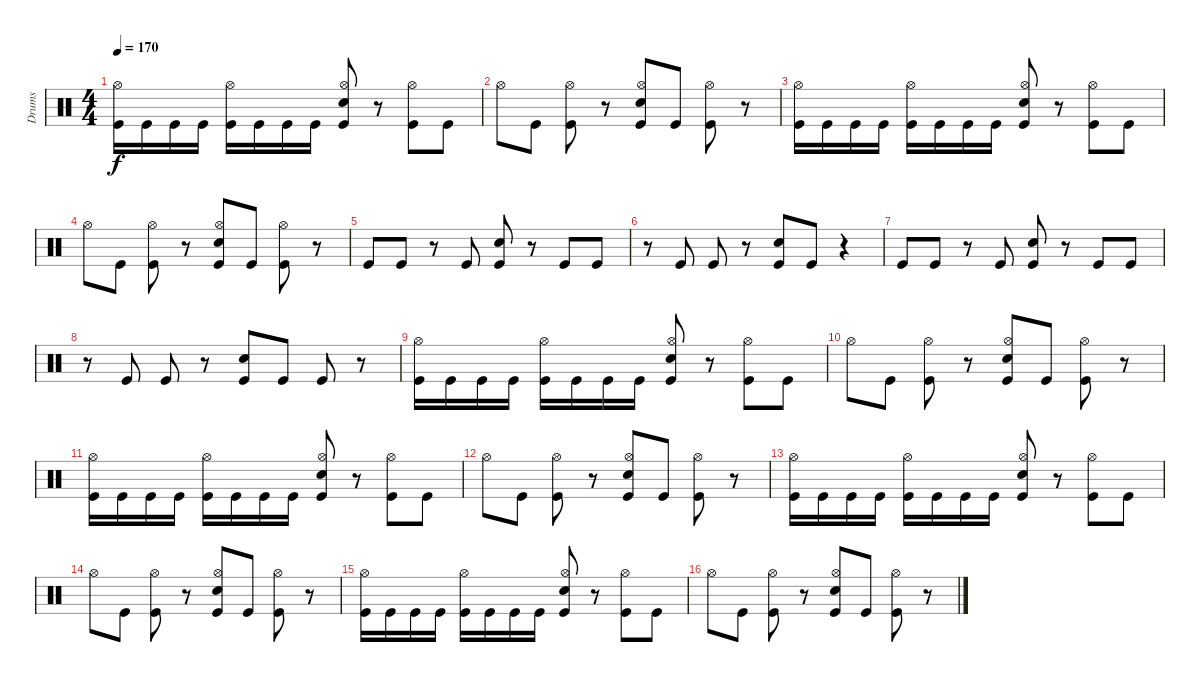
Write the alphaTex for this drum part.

\track ("Drums" "Drums") {instrument percussion}
\staff {score}
\articulation defaults
\ts (4 4)
\tempo 170
\clef neutral
\ks c
("Kick (hit)" "Hi-Hat (open)").16{dy f} "Kick (hit)".16 "Kick (hit)".16 "Kick (hit)".16 ("Kick (hit)" "Hi-Hat (open)").16 "Kick (hit)".16 "Kick (hit)".16 "Kick (hit)".16 ("Kick (hit)" "Hi-Hat (open)" "Snare (hit) 2").8 r.8 ("Kick (hit)" "Hi-Hat (open)").8 "Kick (hit)".8 |
"Hi-Hat (open)".8 "Kick (hit)".8 ("Kick (hit)" "Hi-Hat (open)").8 r.8 ("Kick (hit)" "Hi-Hat (open)" "Snare (hit) 2").8 "Kick (hit)".8 ("Kick (hit)" "Hi-Hat (open)").8 r.8 |
("Kick (hit)" "Hi-Hat (open)").16 "Kick (hit)".16 "Kick (hit)".16 "Kick (hit)".16 ("Kick (hit)" "Hi-Hat (open)").16 "Kick (hit)".16 "Kick (hit)".16 "Kick (hit)".16 ("Kick (hit)" "Hi-Hat (open)" "Snare (hit) 2").8 r.8 ("Kick (hit)" "Hi-Hat (open)").8 "Kick (hit)".8 |
"Hi-Hat (open)".8 "Kick (hit)".8 ("Kick (hit)" "Hi-Hat (open)").8 r.8 ("Kick (hit)" "Hi-Hat (open)" "Snare (hit) 2").8 "Kick (hit)".8 ("Kick (hit)" "Hi-Hat (open)").8 r.8 |
"Kick (hit)".8 "Kick (hit)".8 r.8 "Kick (hit)".8 ("Kick (hit)" "Snare (hit) 2").8 r.8 "Kick (hit)".8 "Kick (hit)".8 |
r.8 "Kick (hit)".8 "Kick (hit)".8 r.8 ("Snare (hit) 2" "Kick (hit)").8 "Kick (hit)".8 r.4 |
"Kick (hit)".8 "Kick (hit)".8 r.8 "Kick (hit)".8 ("Snare (hit) 2" "Kick (hit)").8 r.8 "Kick (hit)".8 "Kick (hit)".8 |
r.8 "Kick (hit)".8 "Kick (hit)".8 r.8 ("Snare (hit) 2" "Kick (hit)").8 "Kick (hit)".8 "Kick (hit)".8 r.8 |
("Kick (hit)" "Hi-Hat (open)").16 "Kick (hit)".16 "Kick (hit)".16 "Kick (hit)".16 ("Kick (hit)" "Hi-Hat (open)").16 "Kick (hit)".16 "Kick (hit)".16 "Kick (hit)".16 ("Kick (hit)" "Hi-Hat (open)" "Snare (hit) 2").8 r.8 ("Kick (hit)" "Hi-Hat (open)").8 "Kick (hit)".8 |
"Hi-Hat (open)".8 "Kick (hit)".8 ("Kick (hit)" "Hi-Hat (open)").8 r.8 ("Kick (hit)" "Hi-Hat (open)" "Snare (hit) 2").8 "Kick (hit)".8 ("Kick (hit)" "Hi-Hat (open)").8 r.8 |
("Kick (hit)" "Hi-Hat (open)").16 "Kick (hit)".16 "Kick (hit)".16 "Kick (hit)".16 ("Kick (hit)" "Hi-Hat (open)").16 "Kick (hit)".16 "Kick (hit)".16 "Kick (hit)".16 ("Kick (hit)" "Hi-Hat (open)" "Snare (hit) 2").8 r.8 ("Kick (hit)" "Hi-Hat (open)").8 "Kick (hit)".8 |
"Hi-Hat (open)".8 "Kick (hit)".8 ("Kick (hit)" "Hi-Hat (open)").8 r.8 ("Kick (hit)" "Hi-Hat (open)" "Snare (hit) 2").8 "Kick (hit)".8 ("Kick (hit)" "Hi-Hat (open)").8 r.8 |
("Kick (hit)" "Hi-Hat (open)").16 "Kick (hit)".16 "Kick (hit)".16 "Kick (hit)".16 ("Kick (hit)" "Hi-Hat (open)").16 "Kick (hit)".16 "Kick (hit)".16 "Kick (hit)".16 ("Kick (hit)" "Hi-Hat (open)" "Snare (hit) 2").8 r.8 ("Kick (hit)" "Hi-Hat (open)").8 "Kick (hit)".8 |
"Hi-Hat (open)".8 "Kick (hit)".8 ("Kick (hit)" "Hi-Hat (open)").8 r.8 ("Kick (hit)" "Hi-Hat (open)" "Snare (hit) 2").8 "Kick (hit)".8 ("Kick (hit)" "Hi-Hat (open)").8 r.8 |
("Kick (hit)" "Hi-Hat (open)").16 "Kick (hit)".16 "Kick (hit)".16 "Kick (hit)".16 ("Kick (hit)" "Hi-Hat (open)").16 "Kick (hit)".16 "Kick (hit)".16 "Kick (hit)".16 ("Kick (hit)" "Hi-Hat (open)" "Snare (hit) 2").8 r.8 ("Kick (hit)" "Hi-Hat (open)").8 "Kick (hit)".8 |
"Hi-Hat (open)".8 "Kick (hit)".8 ("Kick (hit)" "Hi-Hat (open)").8 r.8 ("Kick (hit)" "Hi-Hat (open)" "Snare (hit) 2").8 "Kick (hit)".8 ("Kick (hit)" "Hi-Hat (open)").8 r.8
